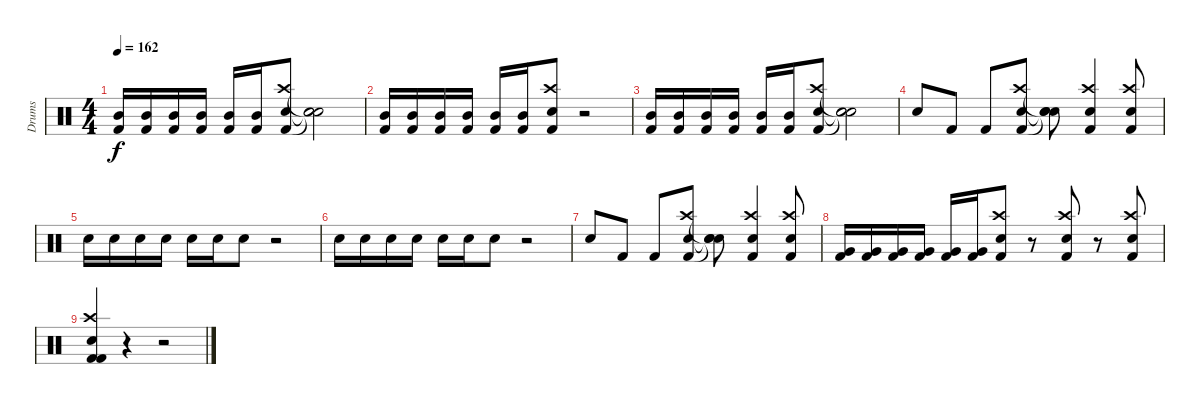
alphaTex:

\track ("Drums" "Drums") {instrument percussion}
\staff {score}
\articulation defaults
\ts (4 4)
\tempo 162
\clef neutral
\ks c
("Mid Tom (hit)" "Kick (hit) 2").16{dy f} ("Mid Tom (hit)" "Kick (hit) 2").16 ("Mid Tom (hit)" "Kick (hit) 2").16 ("Mid Tom (hit)" "Kick (hit) 2").16 ("Mid Tom (hit)" "Kick (hit) 2").16 ("Mid Tom (hit)" "Kick (hit) 2").16 ("Crash high (hit)" "Electric Snare (hit)" "Kick (hit) 2").8 ("Snare (hit)"{t} "Snare (hit)"{t} "Snare (hit)"{t}).2 |
("Mid Tom (hit)" "Kick (hit) 2").16 ("Mid Tom (hit)" "Kick (hit) 2").16 ("Mid Tom (hit)" "Kick (hit) 2").16 ("Mid Tom (hit)" "Kick (hit) 2").16 ("Mid Tom (hit)" "Kick (hit) 2").16 ("Mid Tom (hit)" "Kick (hit) 2").16 ("Crash high (hit)" "Electric Snare (hit)" "Kick (hit) 2").8 r.2 |
("Mid Tom (hit)" "Kick (hit) 2").16 ("Mid Tom (hit)" "Kick (hit) 2").16 ("Mid Tom (hit)" "Kick (hit) 2").16 ("Mid Tom (hit)" "Kick (hit) 2").16 ("Mid Tom (hit)" "Kick (hit) 2").16 ("Mid Tom (hit)" "Kick (hit) 2").16 ("Crash high (hit)" "Electric Snare (hit)" "Kick (hit) 2").8 ("Snare (hit)"{t} "Snare (hit)"{t} "Snare (hit)"{t}).2 |
"Electric Snare (hit)".8 "Kick (hit) 2".8 "Kick (hit) 2".8 ("Crash high (hit)" "Electric Snare (hit)" "Kick (hit) 2").8 ("Snare (hit)"{t} "Snare (hit)"{t} "Snare (hit)"{t}).8 ("Crash high (hit)" "Electric Snare (hit)" "Kick (hit) 2").4 ("Crash high (hit)" "Electric Snare (hit)" "Kick (hit) 2").8 |
"Electric Snare (hit)".16 "Electric Snare (hit)".16 "Electric Snare (hit)".16 "Electric Snare (hit)".16 "Electric Snare (hit)".16 "Electric Snare (hit)".16 "Electric Snare (hit)".8 r.2 |
"Electric Snare (hit)".16 "Electric Snare (hit)".16 "Electric Snare (hit)".16 "Electric Snare (hit)".16 "Electric Snare (hit)".16 "Electric Snare (hit)".16 "Electric Snare (hit)".8 r.2 |
"Electric Snare (hit)".8 "Kick (hit) 2".8 "Kick (hit) 2".8 ("Crash high (hit)" "Electric Snare (hit)" "Kick (hit) 2").8 ("Snare (hit)"{t} "Snare (hit)"{t} "Snare (hit)"{t}).8 ("Crash high (hit)" "Electric Snare (hit)" "Kick (hit) 2").4 ("Crash high (hit)" "Electric Snare (hit)" "Kick (hit) 2").8 |
("Very Low Tom (hit)" "Kick (hit) 2").16 ("Very Low Tom (hit)" "Kick (hit) 2").16 ("Very Low Tom (hit)" "Kick (hit) 2").16 ("Very Low Tom (hit)" "Kick (hit) 2").16 ("Very Low Tom (hit)" "Kick (hit) 2").16 ("Very Low Tom (hit)" "Kick (hit) 2").16 ("Crash high (hit)" "Electric Snare (hit)" "Kick (hit) 2").8 r.8 ("Crash high (hit)" "Electric Snare (hit)" "Kick (hit) 2").8 r.8 ("Crash high (hit)" "Electric Snare (hit)" "Kick (hit) 2").8 |
("Crash high (hit)" "Electric Snare (hit)" "Kick (hit) 2" "Kick (hit) 2").4 r.4 r.2
